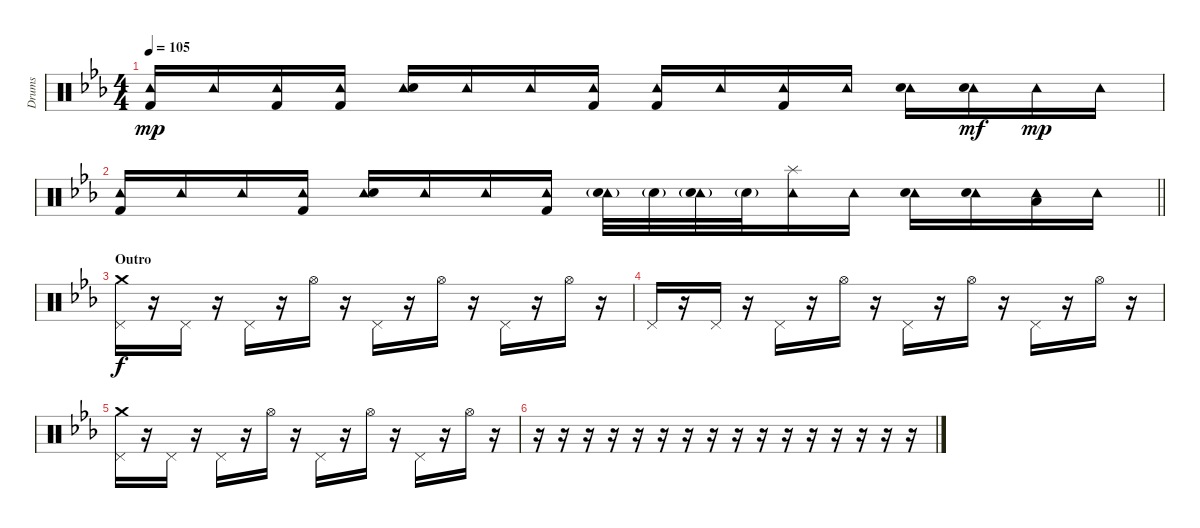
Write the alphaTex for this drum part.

\track ("Drums" "Drums") {instrument percussion}
\staff {score}
\articulation defaults
\ts (4 4)
\tempo 105
\clef neutral
\ks eb
("Tambourine (hit)" "Kick (hit) 2").16{dy mp} "Tambourine (hit)".16 ("Tambourine (hit)" "Kick (hit) 2").16 ("Tambourine (hit)" "Kick (hit) 2").16 ("Tambourine (hit)" "Electric Snare (hit)").16 "Tambourine (hit)".16 "Tambourine (hit)".16 ("Tambourine (hit)" "Kick (hit) 2").16 ("Tambourine (hit)" "Kick (hit) 2").16 "Tambourine (hit)".16 ("Tambourine (hit)" "Kick (hit) 2").16 "Tambourine (hit)".16 ("Tambourine (hit)" "Electric Snare (hit)").16 ("Tambourine (hit)" "Electric Snare (hit)").16{dy mf} "Tambourine (hit)".16{dy mp} "Tambourine (hit)".16 |
\barLineRight lightlight
("Tambourine (hit)" "Kick (hit) 2").16 "Tambourine (hit)".16 "Tambourine (hit)".16 ("Tambourine (hit)" "Kick (hit) 2").16 ("Tambourine (hit)" "Electric Snare (hit)").16 "Tambourine (hit)".16 "Tambourine (hit)".16 ("Tambourine (hit)" "Kick (hit) 2").16 ("Tambourine (hit)" "Electric Snare (hit)"{g}).32 "Electric Snare (hit)"{g}.32 ("Tambourine (hit)" "Electric Snare (hit)"{g}).32 "Electric Snare (hit)"{g}.32 ("Splash (hit)" "Tambourine (hit)").16 "Tambourine (hit)".16 ("Tambourine (hit)" "Electric Snare (hit)").16 ("Tambourine (hit)" "Electric Snare (hit)").16 ("Tambourine (hit)" "Low Tom (hit)").16 "Tambourine (hit)".16 |
\section ("" "Outro")
("Crash medium (hit)" "Pedal Hi-Hat (hit)").16{dy f} r.16 "Pedal Hi-Hat (hit)".16 r.16 "Pedal Hi-Hat (hit)".16 r.16 "Hi-Hat (open)".16 r.16 "Pedal Hi-Hat (hit)".16 r.16 "Hi-Hat (open)".16 r.16 "Pedal Hi-Hat (hit)".16 r.16 "Hi-Hat (open)".16 r.16 |
"Pedal Hi-Hat (hit)".16 r.16 "Pedal Hi-Hat (hit)".16 r.16 "Pedal Hi-Hat (hit)".16 r.16 "Hi-Hat (open)".16 r.16 "Pedal Hi-Hat (hit)".16 r.16 "Hi-Hat (open)".16 r.16 "Pedal Hi-Hat (hit)".16 r.16 "Hi-Hat (open)".16 r.16 |
("Crash medium (hit)" "Pedal Hi-Hat (hit)").16 r.16 "Pedal Hi-Hat (hit)".16 r.16 "Pedal Hi-Hat (hit)".16 r.16 "Hi-Hat (open)".16 r.16 "Pedal Hi-Hat (hit)".16 r.16 "Hi-Hat (open)".16 r.16 "Pedal Hi-Hat (hit)".16 r.16 "Hi-Hat (open)".16 r.16 |
r.16 r.16 r.16 r.16 r.16 r.16 r.16 r.16 r.16 r.16 r.16 r.16 r.16 r.16 r.16 r.16
